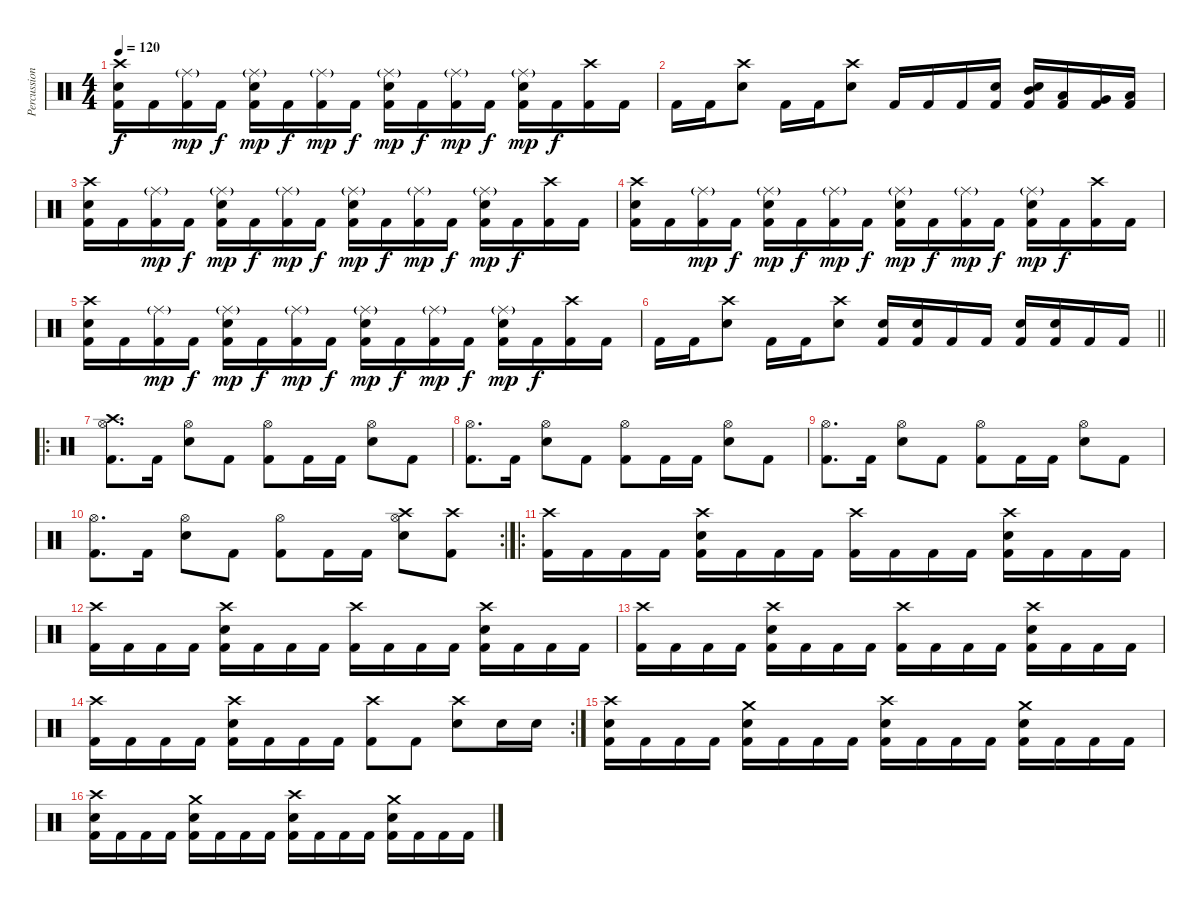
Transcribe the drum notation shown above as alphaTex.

\track ("Percussion" "Percussion") {instrument percussion}
\staff {score}
\articulation defaults
\ts (4 4)
\tempo 120
\clef neutral
\ks c
("Snare (hit) 2" "Kick (hit) 2" "Crash high (hit)").16{dy f} "Kick (hit) 2".16 ("Ride (middle)"{g} "Kick (hit) 2").16{dy mp} "Kick (hit) 2".16{dy f} ("Ride (middle)"{g} "Snare (hit) 2" "Kick (hit) 2").16{dy mp} "Kick (hit) 2".16{dy f} ("Ride (middle)"{g} "Kick (hit) 2").16{dy mp} "Kick (hit) 2".16{dy f} ("Ride (middle)"{g} "Snare (hit) 2" "Kick (hit) 2").16{dy mp} "Kick (hit) 2".16{dy f} ("Ride (middle)"{g} "Kick (hit) 2").16{dy mp} "Kick (hit) 2".16{dy f} ("Ride (middle)"{g} "Snare (hit) 2" "Kick (hit) 2").16{dy mp} "Kick (hit) 2".16{dy f} ("Kick (hit) 2" "Crash high (hit)").16 "Kick (hit) 2".16 |
"Kick (hit) 2".16 "Kick (hit) 2".16 ("Snare (hit) 2" "Crash high (hit)").8 "Kick (hit) 2".16 "Kick (hit) 2".16 ("Snare (hit) 2" "Crash high (hit)").8 "Kick (hit) 2".16 "Kick (hit) 2".16 "Kick (hit) 2".16 ("Snare (hit) 2" "Kick (hit) 2").16 ("Mid Tom (hit)" "Snare (hit) 2" "Kick (hit) 2").16 ("Low Tom (hit)" "Kick (hit) 2").16 ("Very Low Tom (hit)" "Kick (hit) 2").16 ("Low Floor Tom (hit)" "Kick (hit) 2").16 |
("Snare (hit) 2" "Kick (hit) 2" "Crash high (hit)").16 "Kick (hit) 2".16 ("Ride (middle)"{g} "Kick (hit) 2").16{dy mp} "Kick (hit) 2".16{dy f} ("Ride (middle)"{g} "Snare (hit) 2" "Kick (hit) 2").16{dy mp} "Kick (hit) 2".16{dy f} ("Ride (middle)"{g} "Kick (hit) 2").16{dy mp} "Kick (hit) 2".16{dy f} ("Ride (middle)"{g} "Snare (hit) 2" "Kick (hit) 2").16{dy mp} "Kick (hit) 2".16{dy f} ("Ride (middle)"{g} "Kick (hit) 2").16{dy mp} "Kick (hit) 2".16{dy f} ("Ride (middle)"{g} "Snare (hit) 2" "Kick (hit) 2").16{dy mp} "Kick (hit) 2".16{dy f} ("Kick (hit) 2" "Crash high (hit)").16 "Kick (hit) 2".16 |
("Snare (hit) 2" "Kick (hit) 2" "Crash high (hit)").16 "Kick (hit) 2".16 ("Ride (middle)"{g} "Kick (hit) 2").16{dy mp} "Kick (hit) 2".16{dy f} ("Ride (middle)"{g} "Snare (hit) 2" "Kick (hit) 2").16{dy mp} "Kick (hit) 2".16{dy f} ("Ride (middle)"{g} "Kick (hit) 2").16{dy mp} "Kick (hit) 2".16{dy f} ("Ride (middle)"{g} "Snare (hit) 2" "Kick (hit) 2").16{dy mp} "Kick (hit) 2".16{dy f} ("Ride (middle)"{g} "Kick (hit) 2").16{dy mp} "Kick (hit) 2".16{dy f} ("Ride (middle)"{g} "Snare (hit) 2" "Kick (hit) 2").16{dy mp} "Kick (hit) 2".16{dy f} ("Kick (hit) 2" "Crash high (hit)").16 "Kick (hit) 2".16 |
("Snare (hit) 2" "Kick (hit) 2" "Crash high (hit)").16 "Kick (hit) 2".16 ("Ride (middle)"{g} "Kick (hit) 2").16{dy mp} "Kick (hit) 2".16{dy f} ("Ride (middle)"{g} "Snare (hit) 2" "Kick (hit) 2").16{dy mp} "Kick (hit) 2".16{dy f} ("Ride (middle)"{g} "Kick (hit) 2").16{dy mp} "Kick (hit) 2".16{dy f} ("Ride (middle)"{g} "Snare (hit) 2" "Kick (hit) 2").16{dy mp} "Kick (hit) 2".16{dy f} ("Ride (middle)"{g} "Kick (hit) 2").16{dy mp} "Kick (hit) 2".16{dy f} ("Ride (middle)"{g} "Snare (hit) 2" "Kick (hit) 2").16{dy mp} "Kick (hit) 2".16{dy f} ("Kick (hit) 2" "Crash high (hit)").16 "Kick (hit) 2".16 |
\barLineRight lightlight "Kick (hit) 2".16 "Kick (hit) 2".16
("Snare (hit) 2" "Crash high (hit)").8 "Kick (hit) 2".16 "Kick (hit) 2".16 ("Snare (hit) 2" "Crash high (hit)").8 ("Snare (hit) 2" "Kick (hit) 2").16 ("Snare (hit) 2" "Kick (hit) 2").16 "Kick (hit) 2".16 "Kick (hit) 2".16 ("Snare (hit) 2" "Kick (hit) 2").16 ("Snare (hit) 2" "Kick (hit) 2").16 "Kick (hit) 2".16 "Kick (hit) 2".16 |
\ro
("Hi-Hat (open)" "Kick (hit) 2" "Crash high (hit)").8{d} "Kick (hit) 2".16 ("Hi-Hat (open)" "Snare (hit) 2").8 "Kick (hit) 2".8 ("Hi-Hat (open)" "Kick (hit) 2").8 "Kick (hit) 2".16 "Kick (hit) 2".16 ("Hi-Hat (open)" "Snare (hit) 2").8 "Kick (hit) 2".8 |
("Hi-Hat (open)" "Kick (hit) 2").8{d} "Kick (hit) 2".16 ("Hi-Hat (open)" "Snare (hit) 2").8 "Kick (hit) 2".8 ("Hi-Hat (open)" "Kick (hit) 2").8 "Kick (hit) 2".16 "Kick (hit) 2".16 ("Hi-Hat (open)" "Snare (hit) 2").8 "Kick (hit) 2".8 |
("Hi-Hat (open)" "Kick (hit) 2").8{d} "Kick (hit) 2".16 ("Hi-Hat (open)" "Snare (hit) 2").8 "Kick (hit) 2".8 ("Hi-Hat (open)" "Kick (hit) 2").8 "Kick (hit) 2".16 "Kick (hit) 2".16 ("Hi-Hat (open)" "Snare (hit) 2").8 "Kick (hit) 2".8 |
\rc 2
("Hi-Hat (open)" "Kick (hit) 2").8{d} "Kick (hit) 2".16 ("Hi-Hat (open)" "Snare (hit) 2").8 "Kick (hit) 2".8 ("Hi-Hat (open)" "Kick (hit) 2").8 "Kick (hit) 2".16 "Kick (hit) 2".16 ("Hi-Hat (open)" "Snare (hit) 2" "Crash high (hit)").8 ("Kick (hit) 2" "Crash high (hit)").8 |
\ro
("Kick (hit) 2" "Crash high (hit)").16 "Kick (hit) 2".16 "Kick (hit) 2".16 "Kick (hit) 2".16 ("Snare (hit) 2" "Kick (hit) 2" "Crash high (hit)").16 "Kick (hit) 2".16 "Kick (hit) 2".16 "Kick (hit) 2".16 ("Kick (hit) 2" "Crash high (hit)").16 "Kick (hit) 2".16 "Kick (hit) 2".16 "Kick (hit) 2".16 ("Snare (hit) 2" "Kick (hit) 2" "Crash high (hit)").16 "Kick (hit) 2".16 "Kick (hit) 2".16 "Kick (hit) 2".16 |
("Kick (hit) 2" "Crash high (hit)").16 "Kick (hit) 2".16 "Kick (hit) 2".16 "Kick (hit) 2".16 ("Snare (hit) 2" "Kick (hit) 2" "Crash high (hit)").16 "Kick (hit) 2".16 "Kick (hit) 2".16 "Kick (hit) 2".16 ("Kick (hit) 2" "Crash high (hit)").16 "Kick (hit) 2".16 "Kick (hit) 2".16 "Kick (hit) 2".16 ("Snare (hit) 2" "Kick (hit) 2" "Crash high (hit)").16 "Kick (hit) 2".16 "Kick (hit) 2".16 "Kick (hit) 2".16 |
("Kick (hit) 2" "Crash high (hit)").16 "Kick (hit) 2".16 "Kick (hit) 2".16 "Kick (hit) 2".16 ("Snare (hit) 2" "Kick (hit) 2" "Crash high (hit)").16 "Kick (hit) 2".16 "Kick (hit) 2".16 "Kick (hit) 2".16 ("Kick (hit) 2" "Crash high (hit)").16 "Kick (hit) 2".16 "Kick (hit) 2".16 "Kick (hit) 2".16 ("Snare (hit) 2" "Kick (hit) 2" "Crash high (hit)").16 "Kick (hit) 2".16 "Kick (hit) 2".16 "Kick (hit) 2".16 |
\rc 2
("Kick (hit) 2" "Crash high (hit)").16 "Kick (hit) 2".16 "Kick (hit) 2".16 "Kick (hit) 2".16 ("Snare (hit) 2" "Kick (hit) 2" "Crash high (hit)").16 "Kick (hit) 2".16 "Kick (hit) 2".16 "Kick (hit) 2".16 ("Kick (hit) 2" "Crash high (hit)").8 "Kick (hit) 2".8 ("Snare (hit) 2" "Crash high (hit)").8 "Snare (hit) 2".16 "Snare (hit) 2".16 |
("Snare (hit) 2" "Kick (hit) 2" "Crash high (hit)").16 "Kick (hit) 2".16 "Kick (hit) 2".16 "Kick (hit) 2".16 ("Snare (hit) 2" "Kick (hit) 2" "Crash medium (hit)").16 "Kick (hit) 2".16 "Kick (hit) 2".16 "Kick (hit) 2".16 ("Snare (hit) 2" "Kick (hit) 2" "Crash high (hit)").16 "Kick (hit) 2".16 "Kick (hit) 2".16 "Kick (hit) 2".16 ("Snare (hit) 2" "Kick (hit) 2" "Crash medium (hit)").16 "Kick (hit) 2".16 "Kick (hit) 2".16 "Kick (hit) 2".16 |
("Snare (hit) 2" "Kick (hit) 2" "Crash high (hit)").16 "Kick (hit) 2".16 "Kick (hit) 2".16 "Kick (hit) 2".16 ("Snare (hit) 2" "Kick (hit) 2" "Crash medium (hit)").16 "Kick (hit) 2".16 "Kick (hit) 2".16 "Kick (hit) 2".16 ("Snare (hit) 2" "Kick (hit) 2" "Crash high (hit)").16 "Kick (hit) 2".16 "Kick (hit) 2".16 "Kick (hit) 2".16 ("Snare (hit) 2" "Kick (hit) 2" "Crash medium (hit)").16 "Kick (hit) 2".16 "Kick (hit) 2".16 "Kick (hit) 2".16
